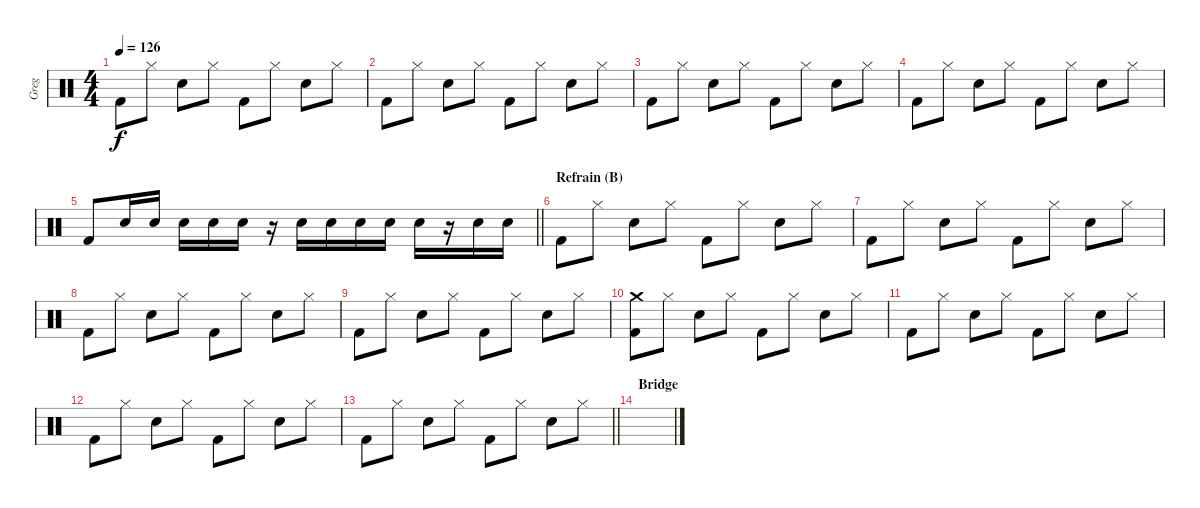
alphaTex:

\track ("Greg" "Greg") {instrument percussion}
\staff {score}
\articulation defaults
\ts (4 4)
\tempo 126
\clef neutral
\ks c "Kick (hit) 2".8{dy f} "Hi-Hat (closed)".8 "Electric Snare (hit)".8 "Hi-Hat (closed)".8 "Kick (hit) 2".8 "Hi-Hat (closed)".8 "Electric Snare (hit)".8 "Hi-Hat (closed)".8
|
"Kick (hit) 2".8 "Hi-Hat (closed)".8 "Electric Snare (hit)".8 "Hi-Hat (closed)".8 "Kick (hit) 2".8 "Hi-Hat (closed)".8 "Electric Snare (hit)".8 "Hi-Hat (closed)".8 |
"Kick (hit) 2".8 "Hi-Hat (closed)".8 "Electric Snare (hit)".8 "Hi-Hat (closed)".8 "Kick (hit) 2".8 "Hi-Hat (closed)".8 "Electric Snare (hit)".8 "Hi-Hat (closed)".8 |
"Kick (hit) 2".8 "Hi-Hat (closed)".8 "Electric Snare (hit)".8 "Hi-Hat (closed)".8 "Kick (hit) 2".8 "Hi-Hat (closed)".8 "Electric Snare (hit)".8 "Hi-Hat (closed)".8 |
\barLineRight lightlight "Kick (hit) 2".8 "Electric Snare (hit)".16 "Electric Snare (hit)".16 "Electric Snare (hit)".16 "Electric Snare (hit)".16 "Electric Snare (hit)".16
r.16 "Electric Snare (hit)".16 "Electric Snare (hit)".16 "Electric Snare (hit)".16 "Electric Snare (hit)".16 "Electric Snare (hit)".16 r.16 "Electric Snare (hit)".16 "Electric Snare (hit)".16 |
\section ("" "Refrain (B)")
"Kick (hit) 2".8 "Hi-Hat (closed)".8 "Electric Snare (hit)".8 "Hi-Hat (closed)".8 "Kick (hit) 2".8 "Hi-Hat (closed)".8 "Electric Snare (hit)".8 "Hi-Hat (closed)".8 |
"Kick (hit) 2".8 "Hi-Hat (closed)".8 "Electric Snare (hit)".8 "Hi-Hat (closed)".8 "Kick (hit) 2".8 "Hi-Hat (closed)".8 "Electric Snare (hit)".8 "Hi-Hat (closed)".8 |
"Kick (hit) 2".8 "Hi-Hat (closed)".8 "Electric Snare (hit)".8 "Hi-Hat (closed)".8 "Kick (hit) 2".8 "Hi-Hat (closed)".8 "Electric Snare (hit)".8 "Hi-Hat (closed)".8 |
"Kick (hit) 2".8 "Hi-Hat (closed)".8 "Electric Snare (hit)".8 "Hi-Hat (closed)".8 "Kick (hit) 2".8 "Hi-Hat (closed)".8 "Electric Snare (hit)".8 "Hi-Hat (closed)".8 |
("Crash medium (hit)" "Kick (hit) 2").8 "Hi-Hat (closed)".8 "Electric Snare (hit)".8 "Hi-Hat (closed)".8 "Kick (hit) 2".8 "Hi-Hat (closed)".8 "Electric Snare (hit)".8 "Hi-Hat (closed)".8 |
"Kick (hit) 2".8 "Hi-Hat (closed)".8 "Electric Snare (hit)".8 "Hi-Hat (closed)".8 "Kick (hit) 2".8 "Hi-Hat (closed)".8 "Electric Snare (hit)".8 "Hi-Hat (closed)".8 |
"Kick (hit) 2".8 "Hi-Hat (closed)".8 "Electric Snare (hit)".8 "Hi-Hat (closed)".8 "Kick (hit) 2".8 "Hi-Hat (closed)".8 "Electric Snare (hit)".8 "Hi-Hat (closed)".8 |
\barLineRight lightlight "Kick (hit) 2".8 "Hi-Hat (closed)".8 "Electric Snare (hit)".8 "Hi-Hat (closed)".8 "Kick (hit) 2".8 "Hi-Hat (closed)".8 "Electric Snare (hit)".8 "Hi-Hat (closed)".8
|
\section ("" "Bridge")
